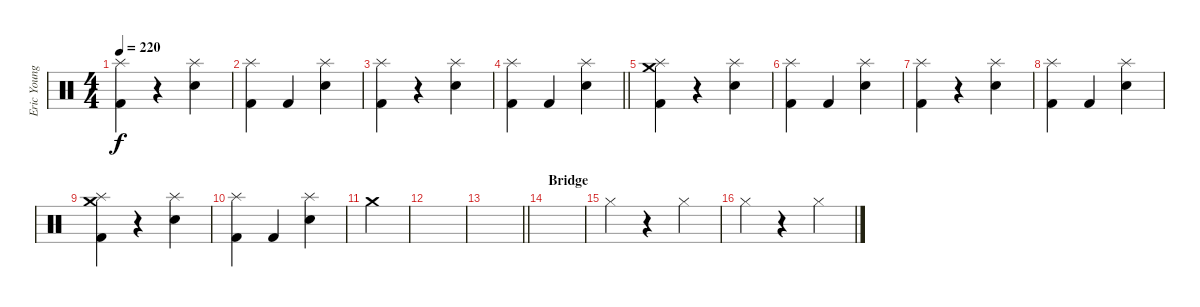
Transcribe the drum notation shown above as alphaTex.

\track ("Eric Young (Drums)" "Eric Young") {instrument percussion}
\staff {score}
\articulation defaults
\ts (4 4)
\tempo 220
\clef neutral
\ks c
("Splash (hit)" "Kick (hit) 2").4{dy f} r.4 ("Splash (hit)" "Snare (hit) 2").4 |
("Splash (hit)" "Kick (hit) 2").4 "Kick (hit) 2".4 ("Splash (hit)" "Snare (hit) 2").4 |
("Splash (hit)" "Kick (hit) 2").4 r.4 ("Splash (hit)" "Snare (hit) 2").4 |
\barLineRight lightlight
("Splash (hit)" "Kick (hit) 2").4 "Kick (hit) 2".4 ("Splash (hit)" "Snare (hit) 2").4 |
("Splash (hit)" "Kick (hit) 2" "Crash medium (hit)").4 r.4 ("Splash (hit)" "Snare (hit) 2").4 |
("Splash (hit)" "Kick (hit) 2").4 "Kick (hit) 2".4 ("Splash (hit)" "Snare (hit) 2").4 |
("Splash (hit)" "Kick (hit) 2").4 r.4 ("Splash (hit)" "Snare (hit) 2").4 |
("Splash (hit)" "Kick (hit) 2").4 "Kick (hit) 2".4 ("Splash (hit)" "Snare (hit) 2").4 |
("Splash (hit)" "Kick (hit) 2" "Crash medium (hit)").4 r.4 ("Splash (hit)" "Snare (hit) 2").4 |
("Splash (hit)" "Kick (hit) 2").4 "Kick (hit) 2".4 ("Splash (hit)" "Snare (hit) 2").4 |
"Crash medium (hit)".4 |
|
\barLineRight lightlight
|
\section ("" "Bridge")
|
"Hi-Hat (closed)".4 r.4 "Hi-Hat (closed)".4 |
"Hi-Hat (closed)".4 r.4 "Hi-Hat (closed)".4
